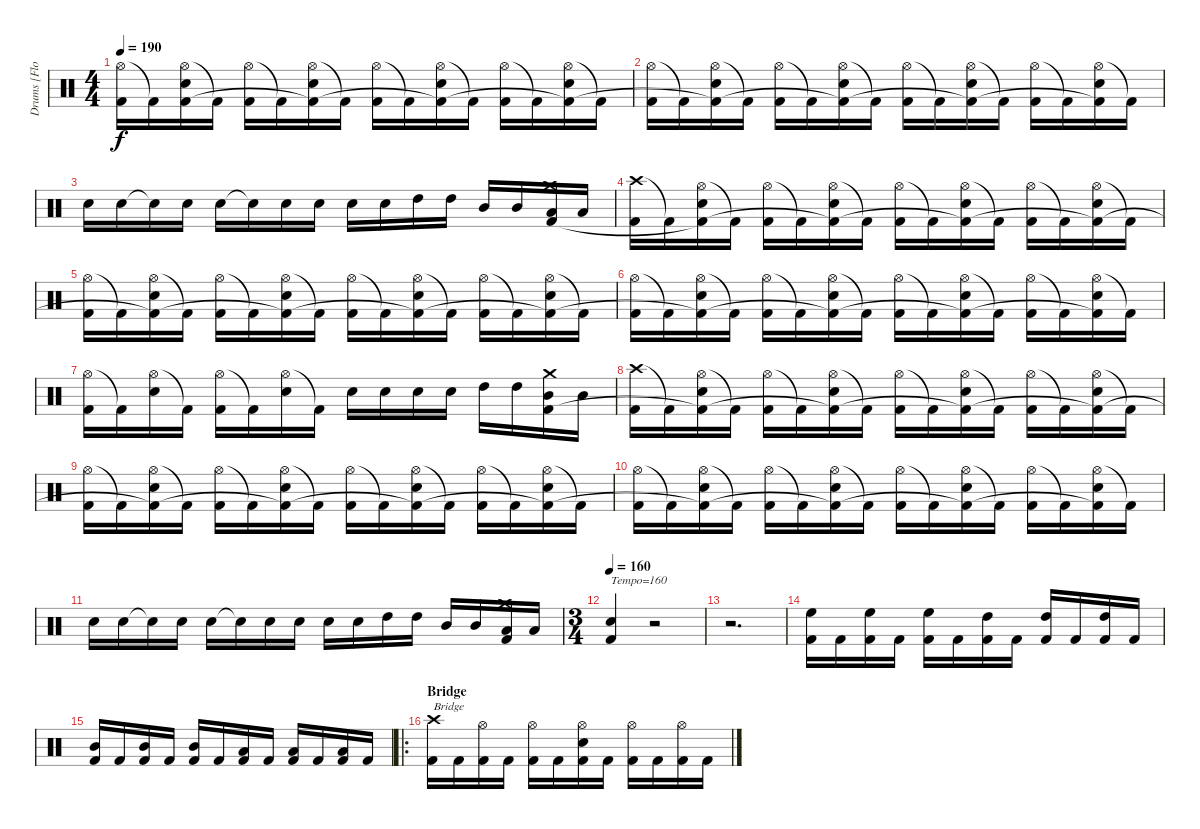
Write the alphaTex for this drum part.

\track ("Drums [Flo Mounier]" "Drums [Flo") {instrument percussion}
\staff {score}
\articulation defaults
\ts (4 4)
\tempo 190
\clef neutral
\ks c
("Hi-Hat (open)" "Kick (hit) 2").16{dy f} "Kick (hit) 2"{t}.16 ("Hi-Hat (open)" "Electric Snare (hit)" "Kick (hit) 2"{t}).16 "Kick (hit) 2"{t}.16 ("Hi-Hat (open)" "Kick (hit) 2").16 "Kick (hit) 2"{t}.16 ("Hi-Hat (open)" "Electric Snare (hit)" "Kick (hit) 2"{t}).16 "Kick (hit) 2"{t}.16 ("Hi-Hat (open)" "Kick (hit) 2").16 "Kick (hit) 2"{t}.16 ("Hi-Hat (open)" "Electric Snare (hit)" "Kick (hit) 2"{t}).16 "Kick (hit) 2"{t}.16 ("Hi-Hat (open)" "Kick (hit) 2").16 "Kick (hit) 2"{t}.16 ("Hi-Hat (open)" "Electric Snare (hit)" "Kick (hit) 2"{t}).16 "Kick (hit) 2"{t}.16 |
("Hi-Hat (open)" "Kick (hit) 2").16 "Kick (hit) 2"{t}.16 ("Hi-Hat (open)" "Electric Snare (hit)" "Kick (hit) 2"{t}).16 "Kick (hit) 2"{t}.16 ("Hi-Hat (open)" "Kick (hit) 2").16 "Kick (hit) 2"{t}.16 ("Hi-Hat (open)" "Electric Snare (hit)" "Kick (hit) 2"{t}).16 "Kick (hit) 2"{t}.16 ("Hi-Hat (open)" "Kick (hit) 2").16 "Kick (hit) 2"{t}.16 ("Hi-Hat (open)" "Electric Snare (hit)" "Kick (hit) 2"{t}).16 "Kick (hit) 2"{t}.16 ("Hi-Hat (open)" "Kick (hit) 2").16 "Kick (hit) 2"{t}.16 ("Hi-Hat (open)" "Electric Snare (hit)" "Kick (hit) 2"{t}).16 "Kick (hit) 2"{t}.16 |
"Electric Snare (hit)".16 "Electric Snare (hit)".16 "Snare (hit)"{t}.16 "Electric Snare (hit)".16 "Electric Snare (hit)".16 "Snare (hit)"{t}.16 "Electric Snare (hit)".16 "Electric Snare (hit)".16 "Electric Snare (hit)".16 "Electric Snare (hit)".16 "High Tom (hit)".16 "High Tom (hit)".16 "Mid Tom (hit)".16 "Mid Tom (hit)".16 ("Crash medium (hit)" "Low Tom (hit)" "Kick (hit) 2").16 "Low Tom (hit)".16 |
("Crash high (hit)" "Kick (hit) 2").16 "Kick (hit) 2"{t}.16 ("Hi-Hat (open)" "Electric Snare (hit)" "Kick (hit) 2"{t}).16 "Kick (hit) 2"{t}.16 ("Hi-Hat (open)" "Kick (hit) 2").16 "Kick (hit) 2"{t}.16 ("Hi-Hat (open)" "Electric Snare (hit)" "Kick (hit) 2"{t}).16 "Kick (hit) 2"{t}.16 ("Hi-Hat (open)" "Kick (hit) 2").16 "Kick (hit) 2"{t}.16 ("Hi-Hat (open)" "Electric Snare (hit)" "Kick (hit) 2"{t}).16 "Kick (hit) 2"{t}.16 ("Hi-Hat (open)" "Kick (hit) 2").16 "Kick (hit) 2"{t}.16 ("Hi-Hat (open)" "Electric Snare (hit)" "Kick (hit) 2"{t}).16 "Kick (hit) 2"{t}.16 |
("Hi-Hat (open)" "Kick (hit) 2").16 "Kick (hit) 2"{t}.16 ("Hi-Hat (open)" "Electric Snare (hit)" "Kick (hit) 2"{t}).16 "Kick (hit) 2"{t}.16 ("Hi-Hat (open)" "Kick (hit) 2").16 "Kick (hit) 2"{t}.16 ("Hi-Hat (open)" "Electric Snare (hit)" "Kick (hit) 2"{t}).16 "Kick (hit) 2"{t}.16 ("Hi-Hat (open)" "Kick (hit) 2").16 "Kick (hit) 2"{t}.16 ("Hi-Hat (open)" "Electric Snare (hit)" "Kick (hit) 2"{t}).16 "Kick (hit) 2"{t}.16 ("Hi-Hat (open)" "Kick (hit) 2").16 "Kick (hit) 2"{t}.16 ("Hi-Hat (open)" "Electric Snare (hit)" "Kick (hit) 2"{t}).16 "Kick (hit) 2"{t}.16 |
("Hi-Hat (open)" "Kick (hit) 2").16 "Kick (hit) 2"{t}.16 ("Hi-Hat (open)" "Electric Snare (hit)" "Kick (hit) 2"{t}).16 "Kick (hit) 2"{t}.16 ("Hi-Hat (open)" "Kick (hit) 2").16 "Kick (hit) 2"{t}.16 ("Hi-Hat (open)" "Electric Snare (hit)" "Kick (hit) 2"{t}).16 "Kick (hit) 2"{t}.16 ("Hi-Hat (open)" "Kick (hit) 2").16 "Kick (hit) 2"{t}.16 ("Hi-Hat (open)" "Electric Snare (hit)" "Kick (hit) 2"{t}).16 "Kick (hit) 2"{t}.16 ("Hi-Hat (open)" "Kick (hit) 2").16 "Kick (hit) 2"{t}.16 ("Hi-Hat (open)" "Electric Snare (hit)" "Kick (hit) 2"{t}).16 "Kick (hit) 2"{t}.16 |
("Hi-Hat (open)" "Kick (hit) 2").16 "Kick (hit) 2"{t}.16 ("Hi-Hat (open)" "Electric Snare (hit)").16 "Kick (hit) 2"{t}.16 ("Hi-Hat (open)" "Kick (hit) 2").16 "Kick (hit) 2"{t}.16 ("Hi-Hat (open)" "Electric Snare (hit)").16 "Kick (hit) 2"{t}.16 "Electric Snare (hit)".16 "Electric Snare (hit)".16 "Electric Snare (hit)".16 "Electric Snare (hit)".16 "High Tom (hit)".16 "High Tom (hit)".16 ("Crash medium (hit)" "Mid Tom (hit)" "Kick (hit) 2").16 "Mid Tom (hit)".16 |
("Crash high (hit)" "Kick (hit) 2").16 "Kick (hit) 2"{t}.16 ("Hi-Hat (open)" "Electric Snare (hit)" "Kick (hit) 2"{t}).16 "Kick (hit) 2"{t}.16 ("Hi-Hat (open)" "Kick (hit) 2").16 "Kick (hit) 2"{t}.16 ("Hi-Hat (open)" "Electric Snare (hit)" "Kick (hit) 2"{t}).16 "Kick (hit) 2"{t}.16 ("Hi-Hat (open)" "Kick (hit) 2").16 "Kick (hit) 2"{t}.16 ("Hi-Hat (open)" "Electric Snare (hit)" "Kick (hit) 2"{t}).16 "Kick (hit) 2"{t}.16 ("Hi-Hat (open)" "Kick (hit) 2").16 "Kick (hit) 2"{t}.16 ("Hi-Hat (open)" "Electric Snare (hit)" "Kick (hit) 2"{t}).16 "Kick (hit) 2"{t}.16 |
("Hi-Hat (open)" "Kick (hit) 2").16 "Kick (hit) 2"{t}.16 ("Hi-Hat (open)" "Electric Snare (hit)" "Kick (hit) 2"{t}).16 "Kick (hit) 2"{t}.16 ("Hi-Hat (open)" "Kick (hit) 2").16 "Kick (hit) 2"{t}.16 ("Hi-Hat (open)" "Electric Snare (hit)" "Kick (hit) 2"{t}).16 "Kick (hit) 2"{t}.16 ("Hi-Hat (open)" "Kick (hit) 2").16 "Kick (hit) 2"{t}.16 ("Hi-Hat (open)" "Electric Snare (hit)" "Kick (hit) 2"{t}).16 "Kick (hit) 2"{t}.16 ("Hi-Hat (open)" "Kick (hit) 2").16 "Kick (hit) 2"{t}.16 ("Hi-Hat (open)" "Electric Snare (hit)" "Kick (hit) 2"{t}).16 "Kick (hit) 2"{t}.16 |
("Hi-Hat (open)" "Kick (hit) 2").16 "Kick (hit) 2"{t}.16 ("Hi-Hat (open)" "Electric Snare (hit)" "Kick (hit) 2"{t}).16 "Kick (hit) 2"{t}.16 ("Hi-Hat (open)" "Kick (hit) 2").16 "Kick (hit) 2"{t}.16 ("Hi-Hat (open)" "Electric Snare (hit)" "Kick (hit) 2"{t}).16 "Kick (hit) 2"{t}.16 ("Hi-Hat (open)" "Kick (hit) 2").16 "Kick (hit) 2"{t}.16 ("Hi-Hat (open)" "Electric Snare (hit)" "Kick (hit) 2"{t}).16 "Kick (hit) 2"{t}.16 ("Hi-Hat (open)" "Kick (hit) 2").16 "Kick (hit) 2"{t}.16 ("Hi-Hat (open)" "Electric Snare (hit)" "Kick (hit) 2"{t}).16 "Kick (hit) 2"{t}.16 |
"Electric Snare (hit)".16 "Electric Snare (hit)".16 "Snare (hit)"{t}.16 "Electric Snare (hit)".16 "Electric Snare (hit)".16 "Snare (hit)"{t}.16 "Electric Snare (hit)".16 "Electric Snare (hit)".16 "Electric Snare (hit)".16 "Electric Snare (hit)".16 "High Tom (hit)".16 "High Tom (hit)".16 "Mid Tom (hit)".16 "Mid Tom (hit)".16 ("Crash medium (hit)" "Low Tom (hit)" "Kick (hit) 2").16 "Low Tom (hit)".16 |
\ts (3 4)
\tempo 160
("Electric Snare (hit)" "Kick (hit) 2").4{txt "Tempo=160"} r.2 |
r.2{d} |
("High Floor Tom (hit)" "Kick (hit) 2").16 "Kick (hit) 2".16 ("High Floor Tom (hit)" "Kick (hit) 2").16 "Kick (hit) 2".16 ("High Floor Tom (hit)" "Kick (hit) 2").16 "Kick (hit) 2".16 ("High Tom (hit)" "Kick (hit) 2").16 "Kick (hit) 2".16 ("High Tom (hit)" "Kick (hit) 2").16 "Kick (hit) 2".16 ("High Tom (hit)" "Kick (hit) 2").16 "Kick (hit) 2".16 |
("Mid Tom (hit)" "Kick (hit) 2").16 "Kick (hit) 2".16 ("Mid Tom (hit)" "Kick (hit) 2").16 "Kick (hit) 2".16 ("Mid Tom (hit)" "Kick (hit) 2").16 "Kick (hit) 2".16 ("Low Tom (hit)" "Kick (hit) 2").16 "Kick (hit) 2".16 ("Low Tom (hit)" "Kick (hit) 2").16 "Kick (hit) 2".16 ("Low Tom (hit)" "Kick (hit) 2").16 "Kick (hit) 2".16 |
\ro
\section ("" "Bridge")
("Crash high (hit)" "Kick (hit) 2").16{txt "Bridge"} "Kick (hit) 2".16 ("Hi-Hat (open)" "Kick (hit) 2").16 "Kick (hit) 2".16 ("Hi-Hat (open)" "Kick (hit) 2").16 "Kick (hit) 2".16 ("Hi-Hat (open)" "Electric Snare (hit)" "Kick (hit) 2").16 "Kick (hit) 2".16 ("Hi-Hat (open)" "Kick (hit) 2").16 "Kick (hit) 2".16 ("Hi-Hat (open)" "Kick (hit) 2").16 "Kick (hit) 2".16
